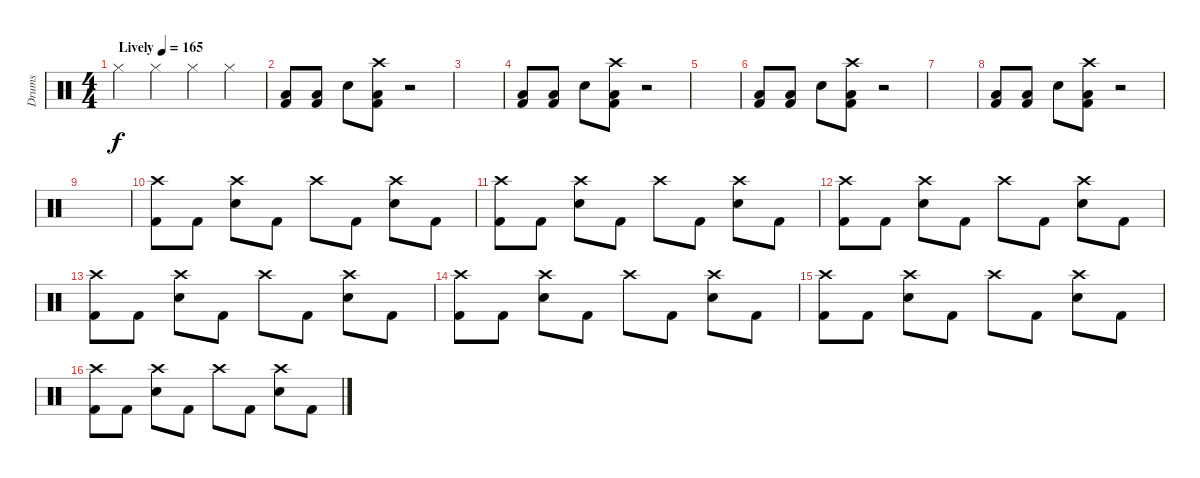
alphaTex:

\track ("Drums" "Drums") {instrument percussion}
\staff {score}
\articulation defaults
\ts (4 4)
\tempo (165 "Lively")
\clef neutral
\ks c "Hi-Hat (closed)".4{dy f} "Hi-Hat (closed)".4 "Hi-Hat (closed)".4 "Hi-Hat (closed)".4
|
("Low Floor Tom (hit)" "Kick (hit) 2").8 ("Low Floor Tom (hit)" "Kick (hit) 2").8 "Snare (hit) 2".8 ("Crash high (hit)" "Low Floor Tom (hit)" "Kick (hit) 2").8 r.2 |
|
("Low Floor Tom (hit)" "Kick (hit) 2").8 ("Low Floor Tom (hit)" "Kick (hit) 2").8 "Snare (hit) 2".8 ("Crash high (hit)" "Low Floor Tom (hit)" "Kick (hit) 2").8 r.2 |
|
("Low Floor Tom (hit)" "Kick (hit) 2").8 ("Low Floor Tom (hit)" "Kick (hit) 2").8 "Snare (hit) 2".8 ("Crash high (hit)" "Low Floor Tom (hit)" "Kick (hit) 2").8 r.2 |
|
("Low Floor Tom (hit)" "Kick (hit) 2").8 ("Low Floor Tom (hit)" "Kick (hit) 2").8 "Snare (hit) 2".8 ("Crash high (hit)" "Low Floor Tom (hit)" "Kick (hit) 2").8 r.2 |
|
("Crash high (hit)" "Kick (hit) 2").8 "Kick (hit) 2".8 ("Crash high (hit)" "Snare (hit) 2").8 "Kick (hit) 2".8 "Crash high (hit)".8 "Kick (hit) 2".8 ("Crash high (hit)" "Snare (hit) 2").8 "Kick (hit) 2".8 |
("Crash high (hit)" "Kick (hit) 2").8 "Kick (hit) 2".8 ("Crash high (hit)" "Snare (hit) 2").8 "Kick (hit) 2".8 "Crash high (hit)".8 "Kick (hit) 2".8 ("Crash high (hit)" "Snare (hit) 2").8 "Kick (hit) 2".8 |
("Crash high (hit)" "Kick (hit) 2").8 "Kick (hit) 2".8 ("Crash high (hit)" "Snare (hit) 2").8 "Kick (hit) 2".8 "Crash high (hit)".8 "Kick (hit) 2".8 ("Crash high (hit)" "Snare (hit) 2").8 "Kick (hit) 2".8 |
("Crash high (hit)" "Kick (hit) 2").8 "Kick (hit) 2".8 ("Crash high (hit)" "Snare (hit) 2").8 "Kick (hit) 2".8 "Crash high (hit)".8 "Kick (hit) 2".8 ("Crash high (hit)" "Snare (hit) 2").8 "Kick (hit) 2".8 |
("Crash high (hit)" "Kick (hit) 2").8 "Kick (hit) 2".8 ("Crash high (hit)" "Snare (hit) 2").8 "Kick (hit) 2".8 "Crash high (hit)".8 "Kick (hit) 2".8 ("Crash high (hit)" "Snare (hit) 2").8 "Kick (hit) 2".8 |
("Crash high (hit)" "Kick (hit) 2").8 "Kick (hit) 2".8 ("Crash high (hit)" "Snare (hit) 2").8 "Kick (hit) 2".8 "Crash high (hit)".8 "Kick (hit) 2".8 ("Crash high (hit)" "Snare (hit) 2").8 "Kick (hit) 2".8 |
("Crash high (hit)" "Kick (hit) 2").8 "Kick (hit) 2".8 ("Crash high (hit)" "Snare (hit) 2").8 "Kick (hit) 2".8 "Crash high (hit)".8 "Kick (hit) 2".8 ("Crash high (hit)" "Snare (hit) 2").8 "Kick (hit) 2".8
